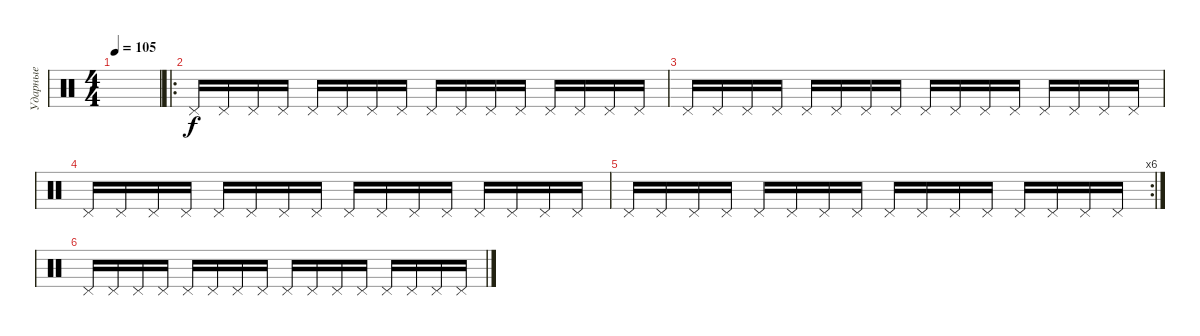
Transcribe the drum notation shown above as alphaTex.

\track ("Ударные" "Ударные") {instrument percussion}
\staff {score}
\articulation defaults
\ts (4 4)
\tempo 105
\clef neutral
\ks c
|
\ro "Pedal Hi-Hat (hit)".16 "Pedal Hi-Hat (hit)".16 "Pedal Hi-Hat (hit)".16 "Pedal Hi-Hat (hit)".16 "Pedal Hi-Hat (hit)".16 "Pedal Hi-Hat (hit)".16 "Pedal Hi-Hat (hit)".16 "Pedal Hi-Hat (hit)".16 "Pedal Hi-Hat (hit)".16 "Pedal Hi-Hat (hit)".16 "Pedal Hi-Hat (hit)".16 "Pedal Hi-Hat (hit)".16 "Pedal Hi-Hat (hit)".16 "Pedal Hi-Hat (hit)".16 "Pedal Hi-Hat (hit)".16 "Pedal Hi-Hat (hit)".16
|
"Pedal Hi-Hat (hit)".16 "Pedal Hi-Hat (hit)".16 "Pedal Hi-Hat (hit)".16 "Pedal Hi-Hat (hit)".16 "Pedal Hi-Hat (hit)".16 "Pedal Hi-Hat (hit)".16 "Pedal Hi-Hat (hit)".16 "Pedal Hi-Hat (hit)".16 "Pedal Hi-Hat (hit)".16 "Pedal Hi-Hat (hit)".16 "Pedal Hi-Hat (hit)".16 "Pedal Hi-Hat (hit)".16 "Pedal Hi-Hat (hit)".16 "Pedal Hi-Hat (hit)".16 "Pedal Hi-Hat (hit)".16 "Pedal Hi-Hat (hit)".16 |
"Pedal Hi-Hat (hit)".16 "Pedal Hi-Hat (hit)".16 "Pedal Hi-Hat (hit)".16 "Pedal Hi-Hat (hit)".16 "Pedal Hi-Hat (hit)".16 "Pedal Hi-Hat (hit)".16 "Pedal Hi-Hat (hit)".16 "Pedal Hi-Hat (hit)".16 "Pedal Hi-Hat (hit)".16 "Pedal Hi-Hat (hit)".16 "Pedal Hi-Hat (hit)".16 "Pedal Hi-Hat (hit)".16 "Pedal Hi-Hat (hit)".16 "Pedal Hi-Hat (hit)".16 "Pedal Hi-Hat (hit)".16 "Pedal Hi-Hat (hit)".16 |
\rc 6 "Pedal Hi-Hat (hit)".16 "Pedal Hi-Hat (hit)".16 "Pedal Hi-Hat (hit)".16 "Pedal Hi-Hat (hit)".16 "Pedal Hi-Hat (hit)".16 "Pedal Hi-Hat (hit)".16 "Pedal Hi-Hat (hit)".16 "Pedal Hi-Hat (hit)".16 "Pedal Hi-Hat (hit)".16 "Pedal Hi-Hat (hit)".16 "Pedal Hi-Hat (hit)".16 "Pedal Hi-Hat (hit)".16 "Pedal Hi-Hat (hit)".16 "Pedal Hi-Hat (hit)".16 "Pedal Hi-Hat (hit)".16 "Pedal Hi-Hat (hit)".16
|
"Pedal Hi-Hat (hit)".16 "Pedal Hi-Hat (hit)".16 "Pedal Hi-Hat (hit)".16 "Pedal Hi-Hat (hit)".16 "Pedal Hi-Hat (hit)".16 "Pedal Hi-Hat (hit)".16 "Pedal Hi-Hat (hit)".16 "Pedal Hi-Hat (hit)".16 "Pedal Hi-Hat (hit)".16 "Pedal Hi-Hat (hit)".16 "Pedal Hi-Hat (hit)".16 "Pedal Hi-Hat (hit)".16 "Pedal Hi-Hat (hit)".16 "Pedal Hi-Hat (hit)".16 "Pedal Hi-Hat (hit)".16 "Pedal Hi-Hat (hit)".16
